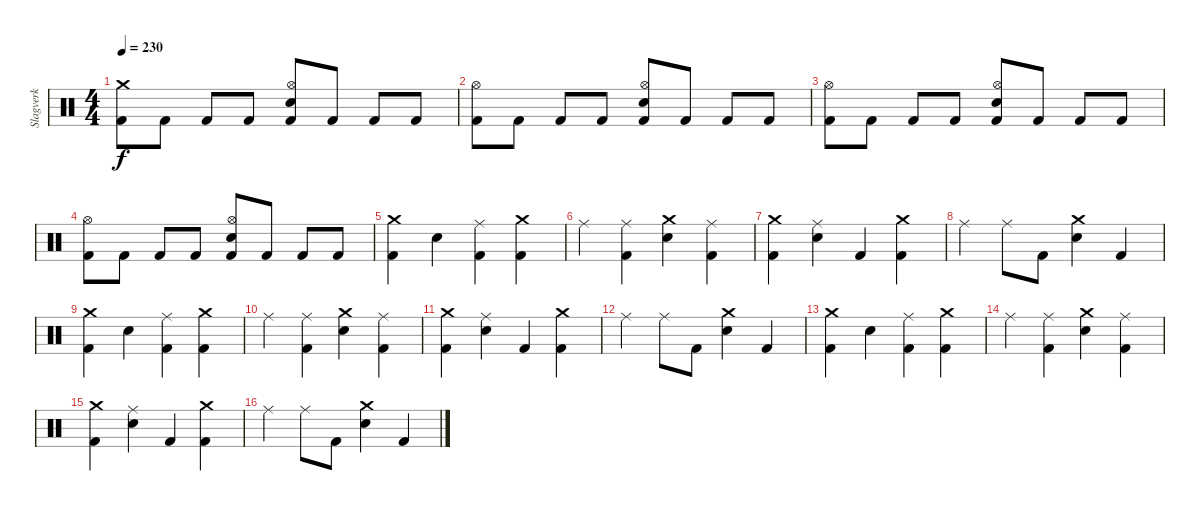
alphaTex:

\track ("Slagverk" "Slagverk") {instrument percussion}
\staff {score}
\articulation defaults
\ts (4 4)
\tempo 230
\clef neutral
\ks c
("Crash medium (hit)" "Kick (hit) 2").8{dy f} "Kick (hit) 2".8 "Kick (hit) 2".8 "Kick (hit) 2".8 ("Hi-Hat (open)" "Kick (hit) 2" "Snare (hit) 2").8 "Kick (hit) 2".8 "Kick (hit) 2".8 "Kick (hit) 2".8 |
("Kick (hit) 2" "Hi-Hat (open)").8 "Kick (hit) 2".8 "Kick (hit) 2".8 "Kick (hit) 2".8 ("Hi-Hat (open)" "Kick (hit) 2" "Snare (hit) 2").8 "Kick (hit) 2".8 "Kick (hit) 2".8 "Kick (hit) 2".8 |
("Kick (hit) 2" "Hi-Hat (open)").8 "Kick (hit) 2".8 "Kick (hit) 2".8 "Kick (hit) 2".8 ("Hi-Hat (open)" "Kick (hit) 2" "Snare (hit) 2").8 "Kick (hit) 2".8 "Kick (hit) 2".8 "Kick (hit) 2".8 |
("Kick (hit) 2" "Hi-Hat (open)").8 "Kick (hit) 2".8 "Kick (hit) 2".8 "Kick (hit) 2".8 ("Hi-Hat (open)" "Kick (hit) 2" "Snare (hit) 2").8 "Kick (hit) 2".8 "Kick (hit) 2".8 "Kick (hit) 2".8 |
("Kick (hit) 2" "Crash medium (hit)").4 "Snare (hit) 2".4 ("Kick (hit) 2" "Ride (middle)").4 ("Kick (hit) 2" "Crash medium (hit)").4 |
"Ride (middle)".4 ("Kick (hit) 2" "Ride (middle)").4 ("Snare (hit) 2" "Crash medium (hit)").4 ("Kick (hit) 2" "Ride (middle)").4 |
("Kick (hit) 2" "Crash medium (hit)").4 ("Snare (hit) 2" "Ride (middle)").4 "Kick (hit) 2".4 ("Kick (hit) 2" "Crash medium (hit)").4 |
"Ride (middle)".4 "Ride (middle)".8 "Kick (hit) 2".8 ("Snare (hit) 2" "Crash medium (hit)").4 "Kick (hit) 2".4 |
("Kick (hit) 2" "Crash medium (hit)").4 "Snare (hit) 2".4 ("Kick (hit) 2" "Ride (middle)").4 ("Kick (hit) 2" "Crash medium (hit)").4 |
"Ride (middle)".4 ("Kick (hit) 2" "Ride (middle)").4 ("Snare (hit) 2" "Crash medium (hit)").4 ("Kick (hit) 2" "Ride (middle)").4 |
("Kick (hit) 2" "Crash medium (hit)").4 ("Snare (hit) 2" "Ride (middle)").4 "Kick (hit) 2".4 ("Kick (hit) 2" "Crash medium (hit)").4 |
"Ride (middle)".4 "Ride (middle)".8 "Kick (hit) 2".8 ("Snare (hit) 2" "Crash medium (hit)").4 "Kick (hit) 2".4 |
("Kick (hit) 2" "Crash medium (hit)").4 "Snare (hit) 2".4 ("Kick (hit) 2" "Ride (middle)").4 ("Kick (hit) 2" "Crash medium (hit)").4 |
"Ride (middle)".4 ("Kick (hit) 2" "Ride (middle)").4 ("Snare (hit) 2" "Crash medium (hit)").4 ("Kick (hit) 2" "Ride (middle)").4 |
("Kick (hit) 2" "Crash medium (hit)").4 ("Snare (hit) 2" "Ride (middle)").4 "Kick (hit) 2".4 ("Kick (hit) 2" "Crash medium (hit)").4 |
"Ride (middle)".4 "Ride (middle)".8 "Kick (hit) 2".8 ("Snare (hit) 2" "Crash medium (hit)").4 "Kick (hit) 2".4
